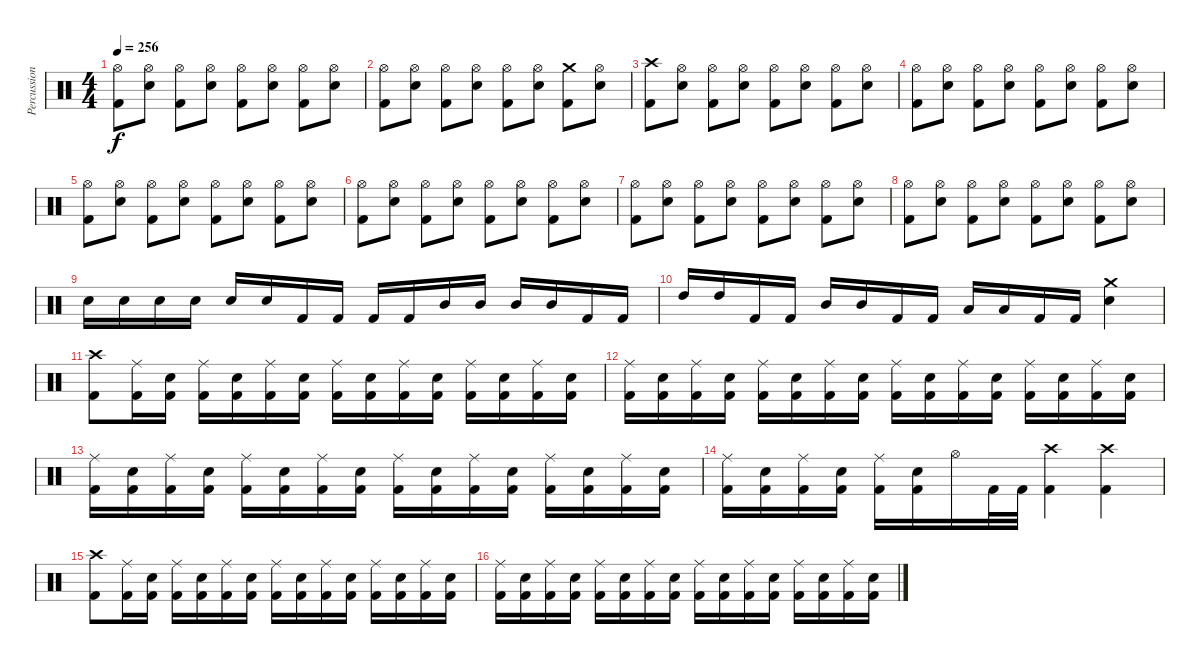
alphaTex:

\track ("Percussion" "Percussion") {instrument percussion}
\staff {score}
\articulation defaults
\ts (4 4)
\tempo 256
\clef neutral
\ks c
("Hi-Hat (open)" "Kick (hit) 2").8{dy f} ("Hi-Hat (open)" "Snare (hit) 2").8 ("Hi-Hat (open)" "Kick (hit) 2").8 ("Hi-Hat (open)" "Snare (hit) 2").8 ("Hi-Hat (open)" "Kick (hit) 2").8 ("Hi-Hat (open)" "Snare (hit) 2").8 ("Hi-Hat (open)" "Kick (hit) 2").8 ("Hi-Hat (open)" "Snare (hit) 2").8 |
("Hi-Hat (open)" "Kick (hit) 2").8 ("Hi-Hat (open)" "Snare (hit) 2").8 ("Hi-Hat (open)" "Kick (hit) 2").8 ("Hi-Hat (open)" "Snare (hit) 2").8 ("Hi-Hat (open)" "Kick (hit) 2").8 ("Hi-Hat (open)" "Snare (hit) 2").8 ("Crash medium (hit)" "Kick (hit) 2").8 ("Hi-Hat (open)" "Snare (hit) 2").8 |
("Crash high (hit)" "Kick (hit) 2").8 ("Hi-Hat (open)" "Snare (hit) 2").8 ("Hi-Hat (open)" "Kick (hit) 2").8 ("Hi-Hat (open)" "Snare (hit) 2").8 ("Hi-Hat (open)" "Kick (hit) 2").8 ("Hi-Hat (open)" "Snare (hit) 2").8 ("Hi-Hat (open)" "Kick (hit) 2").8 ("Hi-Hat (open)" "Snare (hit) 2").8 |
("Hi-Hat (open)" "Kick (hit) 2").8 ("Hi-Hat (open)" "Snare (hit) 2").8 ("Hi-Hat (open)" "Kick (hit) 2").8 ("Hi-Hat (open)" "Snare (hit) 2").8 ("Hi-Hat (open)" "Kick (hit) 2").8 ("Hi-Hat (open)" "Snare (hit) 2").8 ("Hi-Hat (open)" "Kick (hit) 2").8 ("Hi-Hat (open)" "Snare (hit) 2").8 |
("Hi-Hat (open)" "Kick (hit) 2").8 ("Hi-Hat (open)" "Snare (hit) 2").8 ("Hi-Hat (open)" "Kick (hit) 2").8 ("Hi-Hat (open)" "Snare (hit) 2").8 ("Hi-Hat (open)" "Kick (hit) 2").8 ("Hi-Hat (open)" "Snare (hit) 2").8 ("Hi-Hat (open)" "Kick (hit) 2").8 ("Hi-Hat (open)" "Snare (hit) 2").8 |
("Hi-Hat (open)" "Kick (hit) 2").8 ("Hi-Hat (open)" "Snare (hit) 2").8 ("Hi-Hat (open)" "Kick (hit) 2").8 ("Hi-Hat (open)" "Snare (hit) 2").8 ("Hi-Hat (open)" "Kick (hit) 2").8 ("Hi-Hat (open)" "Snare (hit) 2").8 ("Hi-Hat (open)" "Kick (hit) 2").8 ("Hi-Hat (open)" "Snare (hit) 2").8 |
("Hi-Hat (open)" "Kick (hit) 2").8 ("Hi-Hat (open)" "Snare (hit) 2").8 ("Hi-Hat (open)" "Kick (hit) 2").8 ("Hi-Hat (open)" "Snare (hit) 2").8 ("Hi-Hat (open)" "Kick (hit) 2").8 ("Hi-Hat (open)" "Snare (hit) 2").8 ("Hi-Hat (open)" "Kick (hit) 2").8 ("Hi-Hat (open)" "Snare (hit) 2").8 |
("Hi-Hat (open)" "Kick (hit) 2").8 ("Hi-Hat (open)" "Snare (hit) 2").8 ("Hi-Hat (open)" "Kick (hit) 2").8 ("Hi-Hat (open)" "Snare (hit) 2").8 ("Hi-Hat (open)" "Kick (hit) 2").8 ("Hi-Hat (open)" "Snare (hit) 2").8 ("Hi-Hat (open)" "Kick (hit) 2").8 ("Hi-Hat (open)" "Snare (hit) 2").8 |
"Snare (hit) 2".16 "Snare (hit) 2".16 "Snare (hit) 2".16 "Snare (hit) 2".16 "Snare (hit) 2".16 "Snare (hit) 2".16 "Kick (hit) 2".16 "Kick (hit) 2".16 "Kick (hit) 2".16 "Kick (hit) 2".16 "Mid Tom (hit)".16 "Mid Tom (hit)".16 "Mid Tom (hit)".16 "Mid Tom (hit)".16 "Kick (hit) 2".16 "Kick (hit) 2".16 |
"High Tom (hit)".16 "High Tom (hit)".16 "Kick (hit) 2".16 "Kick (hit) 2".16 "Mid Tom (hit)".16 "Mid Tom (hit)".16 "Kick (hit) 2".16 "Kick (hit) 2".16 "Low Tom (hit)".16 "Low Tom (hit)".16 "Kick (hit) 2".16 "Kick (hit) 2".16 ("Crash medium (hit)" "Snare (hit) 2").4 |
("Crash high (hit)" "Kick (hit) 2").8 ("Ride (middle)" "Kick (hit) 2").16 ("Snare (hit) 2" "Kick (hit) 2").16 ("Ride (middle)" "Kick (hit) 2").16 ("Snare (hit) 2" "Kick (hit) 2").16 ("Ride (middle)" "Kick (hit) 2").16 ("Snare (hit) 2" "Kick (hit) 2").16 ("Ride (middle)" "Kick (hit) 2").16 ("Snare (hit) 2" "Kick (hit) 2").16 ("Ride (middle)" "Kick (hit) 2").16 ("Snare (hit) 2" "Kick (hit) 2").16 ("Ride (middle)" "Kick (hit) 2").16 ("Kick (hit) 2" "Snare (hit) 2").16 ("Ride (middle)" "Kick (hit) 2").16 ("Kick (hit) 2" "Snare (hit) 2").16 |
("Ride (middle)" "Kick (hit) 2").16 ("Snare (hit) 2" "Kick (hit) 2").16 ("Ride (middle)" "Kick (hit) 2").16 ("Snare (hit) 2" "Kick (hit) 2").16 ("Ride (middle)" "Kick (hit) 2").16 ("Snare (hit) 2" "Kick (hit) 2").16 ("Ride (middle)" "Kick (hit) 2").16 ("Snare (hit) 2" "Kick (hit) 2").16 ("Ride (middle)" "Kick (hit) 2").16 ("Snare (hit) 2" "Kick (hit) 2").16 ("Ride (middle)" "Kick (hit) 2").16 ("Snare (hit) 2" "Kick (hit) 2").16 ("Ride (middle)" "Kick (hit) 2").16 ("Snare (hit) 2" "Kick (hit) 2").16 ("Ride (middle)" "Kick (hit) 2").16 ("Snare (hit) 2" "Kick (hit) 2").16 |
("Ride (middle)" "Kick (hit) 2").16 ("Snare (hit) 2" "Kick (hit) 2").16 ("Ride (middle)" "Kick (hit) 2").16 ("Snare (hit) 2" "Kick (hit) 2").16 ("Ride (middle)" "Kick (hit) 2").16 ("Snare (hit) 2" "Kick (hit) 2").16 ("Ride (middle)" "Kick (hit) 2").16 ("Snare (hit) 2" "Kick (hit) 2").16 ("Ride (middle)" "Kick (hit) 2").16 ("Snare (hit) 2" "Kick (hit) 2").16 ("Ride (middle)" "Kick (hit) 2").16 ("Snare (hit) 2" "Kick (hit) 2").16 ("Ride (middle)" "Kick (hit) 2").16 ("Snare (hit) 2" "Kick (hit) 2").16 ("Ride (middle)" "Kick (hit) 2").16 ("Snare (hit) 2" "Kick (hit) 2").16 |
("Ride (middle)" "Kick (hit) 2").16 ("Snare (hit) 2" "Kick (hit) 2").16 ("Ride (middle)" "Kick (hit) 2").16 ("Snare (hit) 2" "Kick (hit) 2").16 ("Ride (middle)" "Kick (hit) 2").16 ("Snare (hit) 2" "Kick (hit) 2").16 "Hi-Hat (open)".16 "Kick (hit) 2".32 "Kick (hit) 2".32 ("Crash high (hit)" "Kick (hit) 2").4 ("Crash high (hit)" "Kick (hit) 2").4 |
("Crash high (hit)" "Kick (hit) 2").8 ("Ride (middle)" "Kick (hit) 2").16 ("Snare (hit) 2" "Kick (hit) 2").16 ("Ride (middle)" "Kick (hit) 2").16 ("Snare (hit) 2" "Kick (hit) 2").16 ("Ride (middle)" "Kick (hit) 2").16 ("Snare (hit) 2" "Kick (hit) 2").16 ("Ride (middle)" "Kick (hit) 2").16 ("Snare (hit) 2" "Kick (hit) 2").16 ("Ride (middle)" "Kick (hit) 2").16 ("Snare (hit) 2" "Kick (hit) 2").16 ("Ride (middle)" "Kick (hit) 2").16 ("Kick (hit) 2" "Snare (hit) 2").16 ("Ride (middle)" "Kick (hit) 2").16 ("Kick (hit) 2" "Snare (hit) 2").16 |
("Ride (middle)" "Kick (hit) 2").16 ("Snare (hit) 2" "Kick (hit) 2").16 ("Ride (middle)" "Kick (hit) 2").16 ("Snare (hit) 2" "Kick (hit) 2").16 ("Ride (middle)" "Kick (hit) 2").16 ("Snare (hit) 2" "Kick (hit) 2").16 ("Ride (middle)" "Kick (hit) 2").16 ("Snare (hit) 2" "Kick (hit) 2").16 ("Ride (middle)" "Kick (hit) 2").16 ("Snare (hit) 2" "Kick (hit) 2").16 ("Ride (middle)" "Kick (hit) 2").16 ("Snare (hit) 2" "Kick (hit) 2").16 ("Ride (middle)" "Kick (hit) 2").16 ("Snare (hit) 2" "Kick (hit) 2").16 ("Ride (middle)" "Kick (hit) 2").16 ("Snare (hit) 2" "Kick (hit) 2").16
